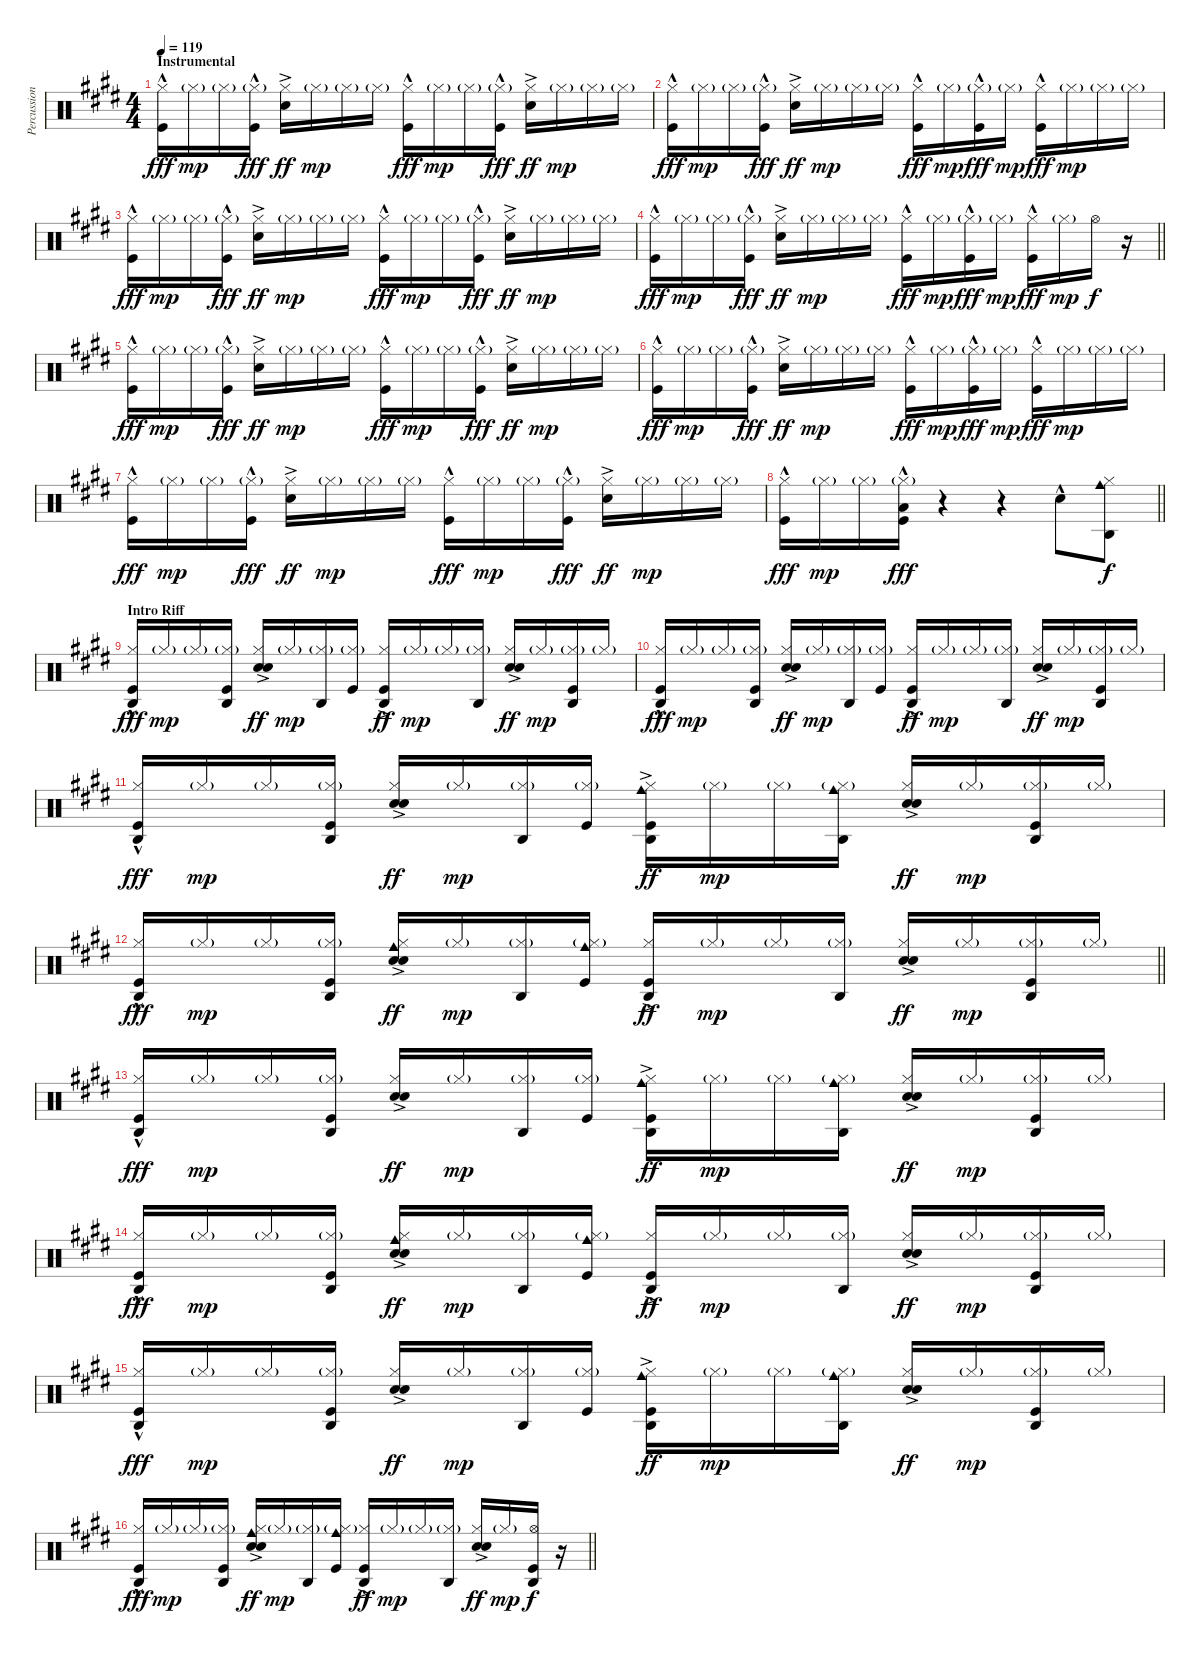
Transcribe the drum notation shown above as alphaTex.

\track ("Percussion" "Percussion") {instrument percussion}
\staff {score}
\articulation defaults
\ts (4 4)
\section ("" "Instrumental")
\tempo 119
\clef neutral
\ks e
("Hi-Hat (closed)" "Kick (hit)"{hac}).16{dy fff} "Hi-Hat (closed)"{g}.16{dy mp} "Hi-Hat (closed)"{g}.16 ("Hi-Hat (closed)"{g} "Kick (hit)"{hac}).16{dy fff} ("Hi-Hat (closed)" "Snare (hit) 2"{ac}).16{dy ff} "Hi-Hat (closed)"{g}.16{dy mp} "Hi-Hat (closed)"{g}.16 "Hi-Hat (closed)"{g}.16 ("Hi-Hat (closed)" "Kick (hit)"{hac}).16{dy fff} "Hi-Hat (closed)"{g}.16{dy mp} "Hi-Hat (closed)"{g}.16 ("Hi-Hat (closed)"{g} "Kick (hit)"{hac}).16{dy fff} ("Hi-Hat (closed)" "Snare (hit) 2"{ac}).16{dy ff} "Hi-Hat (closed)"{g}.16{dy mp} "Hi-Hat (closed)"{g}.16 "Hi-Hat (closed)"{g}.16 |
("Hi-Hat (closed)" "Kick (hit)"{hac}).16{dy fff} "Hi-Hat (closed)"{g}.16{dy mp} "Hi-Hat (closed)"{g}.16 ("Hi-Hat (closed)"{g} "Kick (hit)"{hac}).16{dy fff} ("Hi-Hat (closed)" "Snare (hit) 2"{ac}).16{dy ff} "Hi-Hat (closed)"{g}.16{dy mp} "Hi-Hat (closed)"{g}.16 "Hi-Hat (closed)"{g}.16 ("Hi-Hat (closed)" "Kick (hit)"{hac}).16{dy fff} "Hi-Hat (closed)"{g}.16{dy mp} ("Hi-Hat (closed)"{g} "Kick (hit)"{hac}).16{dy fff} "Hi-Hat (closed)"{g}.16{dy mp} ("Hi-Hat (closed)" "Kick (hit)"{hac}).16{dy fff} "Hi-Hat (closed)"{g}.16{dy mp} "Hi-Hat (closed)"{g}.16 "Hi-Hat (closed)"{g}.16 |
("Hi-Hat (closed)" "Kick (hit)"{hac}).16{dy fff} "Hi-Hat (closed)"{g}.16{dy mp} "Hi-Hat (closed)"{g}.16 ("Hi-Hat (closed)"{g} "Kick (hit)"{hac}).16{dy fff} ("Hi-Hat (closed)" "Snare (hit) 2"{ac}).16{dy ff} "Hi-Hat (closed)"{g}.16{dy mp} "Hi-Hat (closed)"{g}.16 "Hi-Hat (closed)"{g}.16 ("Hi-Hat (closed)" "Kick (hit)"{hac}).16{dy fff} "Hi-Hat (closed)"{g}.16{dy mp} "Hi-Hat (closed)"{g}.16 ("Hi-Hat (closed)"{g} "Kick (hit)"{hac}).16{dy fff} ("Hi-Hat (closed)" "Snare (hit) 2"{ac}).16{dy ff} "Hi-Hat (closed)"{g}.16{dy mp} "Hi-Hat (closed)"{g}.16 "Hi-Hat (closed)"{g}.16 |
\barLineRight lightlight
("Hi-Hat (closed)" "Kick (hit)"{hac}).16{dy fff} "Hi-Hat (closed)"{g}.16{dy mp} "Hi-Hat (closed)"{g}.16 ("Hi-Hat (closed)"{g} "Kick (hit)"{hac}).16{dy fff} ("Hi-Hat (closed)" "Snare (hit) 2"{ac}).16{dy ff} "Hi-Hat (closed)"{g}.16{dy mp} "Hi-Hat (closed)"{g}.16 "Hi-Hat (closed)"{g}.16 ("Hi-Hat (closed)" "Kick (hit)"{hac}).16{dy fff} "Hi-Hat (closed)"{g}.16{dy mp} ("Hi-Hat (closed)"{g} "Kick (hit)"{hac}).16{dy fff} "Hi-Hat (closed)"{g}.16{dy mp} ("Hi-Hat (closed)" "Kick (hit)"{hac}).16{dy fff} "Hi-Hat (closed)"{g}.16{dy mp} "Hi-Hat (open)".16{dy f} r.16 |
("Hi-Hat (closed)" "Kick (hit)"{hac}).16{dy fff} "Hi-Hat (closed)"{g}.16{dy mp} "Hi-Hat (closed)"{g}.16 ("Hi-Hat (closed)"{g} "Kick (hit)"{hac}).16{dy fff} ("Hi-Hat (closed)" "Snare (hit) 2"{ac}).16{dy ff} "Hi-Hat (closed)"{g}.16{dy mp} "Hi-Hat (closed)"{g}.16 "Hi-Hat (closed)"{g}.16 ("Hi-Hat (closed)" "Kick (hit)"{hac}).16{dy fff} "Hi-Hat (closed)"{g}.16{dy mp} "Hi-Hat (closed)"{g}.16 ("Hi-Hat (closed)"{g} "Kick (hit)"{hac}).16{dy fff} ("Hi-Hat (closed)" "Snare (hit) 2"{ac}).16{dy ff} "Hi-Hat (closed)"{g}.16{dy mp} "Hi-Hat (closed)"{g}.16 "Hi-Hat (closed)"{g}.16 |
("Hi-Hat (closed)" "Kick (hit)"{hac}).16{dy fff} "Hi-Hat (closed)"{g}.16{dy mp} "Hi-Hat (closed)"{g}.16 ("Hi-Hat (closed)"{g} "Kick (hit)"{hac}).16{dy fff} ("Hi-Hat (closed)" "Snare (hit) 2"{ac}).16{dy ff} "Hi-Hat (closed)"{g}.16{dy mp} "Hi-Hat (closed)"{g}.16 "Hi-Hat (closed)"{g}.16 ("Hi-Hat (closed)" "Kick (hit)"{hac}).16{dy fff} "Hi-Hat (closed)"{g}.16{dy mp} ("Hi-Hat (closed)"{g} "Kick (hit)"{hac}).16{dy fff} "Hi-Hat (closed)"{g}.16{dy mp} ("Hi-Hat (closed)" "Kick (hit)"{hac}).16{dy fff} "Hi-Hat (closed)"{g}.16{dy mp} "Hi-Hat (closed)"{g}.16 "Hi-Hat (closed)"{g}.16 |
("Hi-Hat (closed)" "Kick (hit)"{hac}).16{dy fff} "Hi-Hat (closed)"{g}.16{dy mp} "Hi-Hat (closed)"{g}.16 ("Hi-Hat (closed)"{g} "Kick (hit)"{hac}).16{dy fff} ("Hi-Hat (closed)" "Snare (hit) 2"{ac}).16{dy ff} "Hi-Hat (closed)"{g}.16{dy mp} "Hi-Hat (closed)"{g}.16 "Hi-Hat (closed)"{g}.16 ("Hi-Hat (closed)" "Kick (hit)"{hac}).16{dy fff} "Hi-Hat (closed)"{g}.16{dy mp} "Hi-Hat (closed)"{g}.16 ("Hi-Hat (closed)"{g} "Kick (hit)"{hac}).16{dy fff} ("Hi-Hat (closed)" "Snare (hit) 2"{ac}).16{dy ff} "Hi-Hat (closed)"{g}.16{dy mp} "Hi-Hat (closed)"{g}.16 "Hi-Hat (closed)"{g}.16 |
\barLineRight lightlight
("Hi-Hat (closed)" "Kick (hit)"{hac}).16{dy fff} "Hi-Hat (closed)"{g}.16{dy mp} "Hi-Hat (closed)"{g}.16 ("Hi-Hat (closed)"{g} "Low Tom (hit)"{hac} "Kick (hit)"{hac}).16{dy fff} r.4 r.4 "Snare (hit) 2"{hac}.8 ("Agogo high (hit)" "Cowbell medium (hit)" "Hi-Hat (closed)").8{dy f} |
\section ("" "Intro Riff")
("Agogo high (hit)" "Hi-Hat (closed)" "Kick (hit)"{hac}).16{dy fff} "Hi-Hat (closed)"{g}.16{dy mp} "Hi-Hat (closed)"{g}.16 ("Agogo high (hit)" "Hi-Hat (closed)"{g} "Kick (hit)").16 ("Hi-Hat (closed)" "Hand Clap (hit)"{ac} "Snare (hit) 2"{ac}).16{dy ff} "Hi-Hat (closed)"{g}.16{dy mp} ("Agogo high (hit)" "Hi-Hat (closed)"{g}).16 ("Hi-Hat (closed)"{g} "Kick (hit)").16 ("Agogo high (hit)" "Hi-Hat (closed)" "Kick (hit)"{ac}).16{dy ff} "Hi-Hat (closed)"{g}.16{dy mp} "Hi-Hat (closed)"{g}.16 ("Agogo high (hit)" "Hi-Hat (closed)"{g}).16 ("Hi-Hat (closed)" "Hand Clap (hit)"{ac} "Snare (hit) 2"{ac}).16{dy ff} "Hi-Hat (closed)"{g}.16{dy mp} ("Agogo high (hit)" "Hi-Hat (closed)"{g} "Kick (hit)").16 "Hi-Hat (closed)"{g}.16 |
("Agogo high (hit)" "Hi-Hat (closed)" "Kick (hit)"{hac}).16{dy fff} "Hi-Hat (closed)"{g}.16{dy mp} "Hi-Hat (closed)"{g}.16 ("Agogo high (hit)" "Hi-Hat (closed)"{g} "Kick (hit)").16 ("Hi-Hat (closed)" "Hand Clap (hit)"{ac} "Snare (hit) 2"{ac}).16{dy ff} "Hi-Hat (closed)"{g}.16{dy mp} ("Agogo high (hit)" "Hi-Hat (closed)"{g}).16 ("Hi-Hat (closed)"{g} "Kick (hit)").16 ("Agogo high (hit)" "Hi-Hat (closed)" "Kick (hit)"{ac}).16{dy ff} "Hi-Hat (closed)"{g}.16{dy mp} "Hi-Hat (closed)"{g}.16 ("Agogo high (hit)" "Hi-Hat (closed)"{g}).16 ("Hi-Hat (closed)" "Hand Clap (hit)"{ac} "Snare (hit) 2"{ac}).16{dy ff} "Hi-Hat (closed)"{g}.16{dy mp} ("Agogo high (hit)" "Hi-Hat (closed)"{g} "Kick (hit)").16 "Hi-Hat (closed)"{g}.16 |
("Agogo high (hit)" "Hi-Hat (closed)" "Kick (hit)"{hac}).16{dy fff} "Hi-Hat (closed)"{g}.16{dy mp} "Hi-Hat (closed)"{g}.16 ("Agogo high (hit)" "Hi-Hat (closed)"{g} "Kick (hit)").16 ("Hi-Hat (closed)" "Hand Clap (hit)"{ac} "Snare (hit) 2"{ac}).16{dy ff} "Hi-Hat (closed)"{g}.16{dy mp} ("Agogo high (hit)" "Hi-Hat (closed)"{g}).16 ("Hi-Hat (closed)"{g} "Kick (hit)").16 ("Agogo high (hit)" "Cowbell medium (hit)" "Hi-Hat (closed)" "Kick (hit)"{ac}).16{dy ff} "Hi-Hat (closed)"{g}.16{dy mp} "Hi-Hat (closed)"{g}.16 ("Agogo high (hit)" "Cowbell medium (hit)" "Hi-Hat (closed)"{g}).16 ("Hi-Hat (closed)" "Hand Clap (hit)"{ac} "Snare (hit) 2"{ac}).16{dy ff} "Hi-Hat (closed)"{g}.16{dy mp} ("Agogo high (hit)" "Hi-Hat (closed)"{g} "Kick (hit)").16 "Hi-Hat (closed)"{g}.16 |
\barLineRight lightlight
("Agogo high (hit)" "Hi-Hat (closed)" "Kick (hit)"{hac}).16{dy fff} "Hi-Hat (closed)"{g}.16{dy mp} "Hi-Hat (closed)"{g}.16 ("Agogo high (hit)" "Hi-Hat (closed)"{g} "Kick (hit)").16 ("Cowbell medium (hit)" "Hi-Hat (closed)" "Hand Clap (hit)"{ac} "Snare (hit) 2"{ac}).16{dy ff} "Hi-Hat (closed)"{g}.16{dy mp} ("Agogo high (hit)" "Hi-Hat (closed)"{g}).16 ("Cowbell medium (hit)" "Hi-Hat (closed)"{g} "Kick (hit)").16 ("Agogo high (hit)" "Hi-Hat (closed)" "Kick (hit)"{ac}).16{dy ff} "Hi-Hat (closed)"{g}.16{dy mp} "Hi-Hat (closed)"{g}.16 ("Agogo high (hit)" "Hi-Hat (closed)"{g}).16 ("Hi-Hat (closed)" "Hand Clap (hit)"{ac} "Snare (hit) 2"{ac}).16{dy ff} "Hi-Hat (closed)"{g}.16{dy mp} ("Agogo high (hit)" "Hi-Hat (closed)"{g} "Kick (hit)").16 "Hi-Hat (closed)"{g}.16 |
("Agogo high (hit)" "Hi-Hat (closed)" "Kick (hit)"{hac}).16{dy fff} "Hi-Hat (closed)"{g}.16{dy mp} "Hi-Hat (closed)"{g}.16 ("Agogo high (hit)" "Hi-Hat (closed)"{g} "Kick (hit)").16 ("Hi-Hat (closed)" "Hand Clap (hit)"{ac} "Snare (hit) 2"{ac}).16{dy ff} "Hi-Hat (closed)"{g}.16{dy mp} ("Agogo high (hit)" "Hi-Hat (closed)"{g}).16 ("Hi-Hat (closed)"{g} "Kick (hit)").16 ("Agogo high (hit)" "Cowbell medium (hit)" "Hi-Hat (closed)" "Kick (hit)"{ac}).16{dy ff} "Hi-Hat (closed)"{g}.16{dy mp} "Hi-Hat (closed)"{g}.16 ("Agogo high (hit)" "Cowbell medium (hit)" "Hi-Hat (closed)"{g}).16 ("Hi-Hat (closed)" "Hand Clap (hit)"{ac} "Snare (hit) 2"{ac}).16{dy ff} "Hi-Hat (closed)"{g}.16{dy mp} ("Agogo high (hit)" "Hi-Hat (closed)"{g} "Kick (hit)").16 "Hi-Hat (closed)"{g}.16 |
("Agogo high (hit)" "Hi-Hat (closed)" "Kick (hit)"{hac}).16{dy fff} "Hi-Hat (closed)"{g}.16{dy mp} "Hi-Hat (closed)"{g}.16 ("Agogo high (hit)" "Hi-Hat (closed)"{g} "Kick (hit)").16 ("Cowbell medium (hit)" "Hi-Hat (closed)" "Hand Clap (hit)"{ac} "Snare (hit) 2"{ac}).16{dy ff} "Hi-Hat (closed)"{g}.16{dy mp} ("Agogo high (hit)" "Hi-Hat (closed)"{g}).16 ("Cowbell medium (hit)" "Hi-Hat (closed)"{g} "Kick (hit)").16 ("Agogo high (hit)" "Hi-Hat (closed)" "Kick (hit)"{ac}).16{dy ff} "Hi-Hat (closed)"{g}.16{dy mp} "Hi-Hat (closed)"{g}.16 ("Agogo high (hit)" "Hi-Hat (closed)"{g}).16 ("Hi-Hat (closed)" "Hand Clap (hit)"{ac} "Snare (hit) 2"{ac}).16{dy ff} "Hi-Hat (closed)"{g}.16{dy mp} ("Agogo high (hit)" "Hi-Hat (closed)"{g} "Kick (hit)").16 "Hi-Hat (closed)"{g}.16 |
("Agogo high (hit)" "Hi-Hat (closed)" "Kick (hit)"{hac}).16{dy fff} "Hi-Hat (closed)"{g}.16{dy mp} "Hi-Hat (closed)"{g}.16 ("Agogo high (hit)" "Hi-Hat (closed)"{g} "Kick (hit)").16 ("Hi-Hat (closed)" "Hand Clap (hit)"{ac} "Snare (hit) 2"{ac}).16{dy ff} "Hi-Hat (closed)"{g}.16{dy mp} ("Agogo high (hit)" "Hi-Hat (closed)"{g}).16 ("Hi-Hat (closed)"{g} "Kick (hit)").16 ("Agogo high (hit)" "Cowbell medium (hit)" "Hi-Hat (closed)" "Kick (hit)"{ac}).16{dy ff} "Hi-Hat (closed)"{g}.16{dy mp} "Hi-Hat (closed)"{g}.16 ("Agogo high (hit)" "Cowbell medium (hit)" "Hi-Hat (closed)"{g}).16 ("Hi-Hat (closed)" "Hand Clap (hit)"{ac} "Snare (hit) 2"{ac}).16{dy ff} "Hi-Hat (closed)"{g}.16{dy mp} ("Agogo high (hit)" "Hi-Hat (closed)"{g} "Kick (hit)").16 "Hi-Hat (closed)"{g}.16 |
\barLineRight lightlight
("Agogo high (hit)" "Hi-Hat (closed)" "Kick (hit)"{hac}).16{dy fff} "Hi-Hat (closed)"{g}.16{dy mp} "Hi-Hat (closed)"{g}.16 ("Agogo high (hit)" "Hi-Hat (closed)"{g} "Kick (hit)").16 ("Cowbell medium (hit)" "Hi-Hat (closed)" "Hand Clap (hit)"{ac} "Snare (hit) 2"{ac}).16{dy ff} "Hi-Hat (closed)"{g}.16{dy mp} ("Agogo high (hit)" "Hi-Hat (closed)"{g}).16 ("Cowbell medium (hit)" "Hi-Hat (closed)"{g} "Kick (hit)").16 ("Agogo high (hit)" "Hi-Hat (closed)" "Kick (hit)"{ac}).16{dy ff} "Hi-Hat (closed)"{g}.16{dy mp} "Hi-Hat (closed)"{g}.16 ("Agogo high (hit)" "Hi-Hat (closed)"{g}).16 ("Hi-Hat (closed)" "Hand Clap (hit)"{ac} "Snare (hit) 2"{ac}).16{dy ff} "Hi-Hat (closed)"{g}.16{dy mp} ("Agogo high (hit)" "Hi-Hat (open)" "Kick (hit)").16{dy f} r.16
